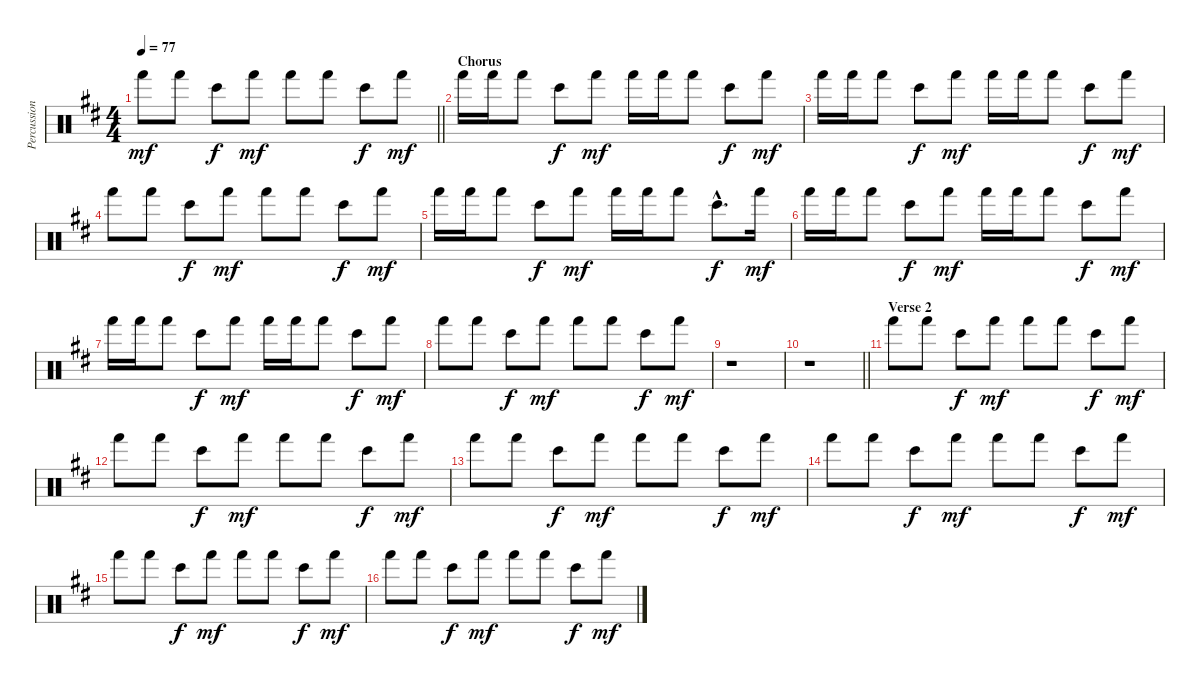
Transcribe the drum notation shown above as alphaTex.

\track ("Percussion" "Percussion") {instrument percussion}
\staff {score}
\articulation defaults
\ts (4 4)
\tempo 77
\clef neutral
\barLineRight lightlight
\ks d "Hand (hit)".8{dy mf} "Hand (hit)".8 "Bongo High (hit)".8{dy f} "Hand (hit)".8{dy mf} "Hand (hit)".8 "Hand (hit)".8 "Bongo High (hit)".8{dy f} "Hand (hit)".8{dy mf}
|
\section ("" "Chorus")
"Hand (hit)".16 "Hand (hit)".16 "Hand (hit)".8 "Bongo High (hit)".8{dy f} "Hand (hit)".8{dy mf} "Hand (hit)".16 "Hand (hit)".16 "Hand (hit)".8 "Bongo High (hit)".8{dy f} "Hand (hit)".8{dy mf} |
"Hand (hit)".16 "Hand (hit)".16 "Hand (hit)".8 "Bongo High (hit)".8{dy f} "Hand (hit)".8{dy mf} "Hand (hit)".16 "Hand (hit)".16 "Hand (hit)".8 "Bongo High (hit)".8{dy f} "Hand (hit)".8{dy mf} |
"Hand (hit)".8 "Hand (hit)".8 "Bongo High (hit)".8{dy f} "Hand (hit)".8{dy mf} "Hand (hit)".8 "Hand (hit)".8 "Bongo High (hit)".8{dy f} "Hand (hit)".8{dy mf} |
"Hand (hit)".16 "Hand (hit)".16 "Hand (hit)".8 "Bongo High (hit)".8{dy f} "Hand (hit)".8{dy mf} "Hand (hit)".16 "Hand (hit)".16 "Hand (hit)".8 "Bongo High (hit)"{hac}.8{d dy f} "Hand (hit)".16{dy mf} |
"Hand (hit)".16 "Hand (hit)".16 "Hand (hit)".8 "Bongo High (hit)".8{dy f} "Hand (hit)".8{dy mf} "Hand (hit)".16 "Hand (hit)".16 "Hand (hit)".8 "Bongo High (hit)".8{dy f} "Hand (hit)".8{dy mf} |
"Hand (hit)".16 "Hand (hit)".16 "Hand (hit)".8 "Bongo High (hit)".8{dy f} "Hand (hit)".8{dy mf} "Hand (hit)".16 "Hand (hit)".16 "Hand (hit)".8 "Bongo High (hit)".8{dy f} "Hand (hit)".8{dy mf} |
"Hand (hit)".8 "Hand (hit)".8 "Bongo High (hit)".8{dy f} "Hand (hit)".8{dy mf} "Hand (hit)".8 "Hand (hit)".8 "Bongo High (hit)".8{dy f} "Hand (hit)".8{dy mf} |
r.1 |
\barLineRight lightlight
r.1 |
\section ("" "Verse 2")
"Hand (hit)".8 "Hand (hit)".8 "Bongo High (hit)".8{dy f} "Hand (hit)".8{dy mf} "Hand (hit)".8 "Hand (hit)".8 "Bongo High (hit)".8{dy f} "Hand (hit)".8{dy mf} |
"Hand (hit)".8 "Hand (hit)".8 "Bongo High (hit)".8{dy f} "Hand (hit)".8{dy mf} "Hand (hit)".8 "Hand (hit)".8 "Bongo High (hit)".8{dy f} "Hand (hit)".8{dy mf} |
"Hand (hit)".8 "Hand (hit)".8 "Bongo High (hit)".8{dy f} "Hand (hit)".8{dy mf} "Hand (hit)".8 "Hand (hit)".8 "Bongo High (hit)".8{dy f} "Hand (hit)".8{dy mf} |
"Hand (hit)".8 "Hand (hit)".8 "Bongo High (hit)".8{dy f} "Hand (hit)".8{dy mf} "Hand (hit)".8 "Hand (hit)".8 "Bongo High (hit)".8{dy f} "Hand (hit)".8{dy mf} |
"Hand (hit)".8 "Hand (hit)".8 "Bongo High (hit)".8{dy f} "Hand (hit)".8{dy mf} "Hand (hit)".8 "Hand (hit)".8 "Bongo High (hit)".8{dy f} "Hand (hit)".8{dy mf} |
"Hand (hit)".8 "Hand (hit)".8 "Bongo High (hit)".8{dy f} "Hand (hit)".8{dy mf} "Hand (hit)".8 "Hand (hit)".8 "Bongo High (hit)".8{dy f} "Hand (hit)".8{dy mf}
